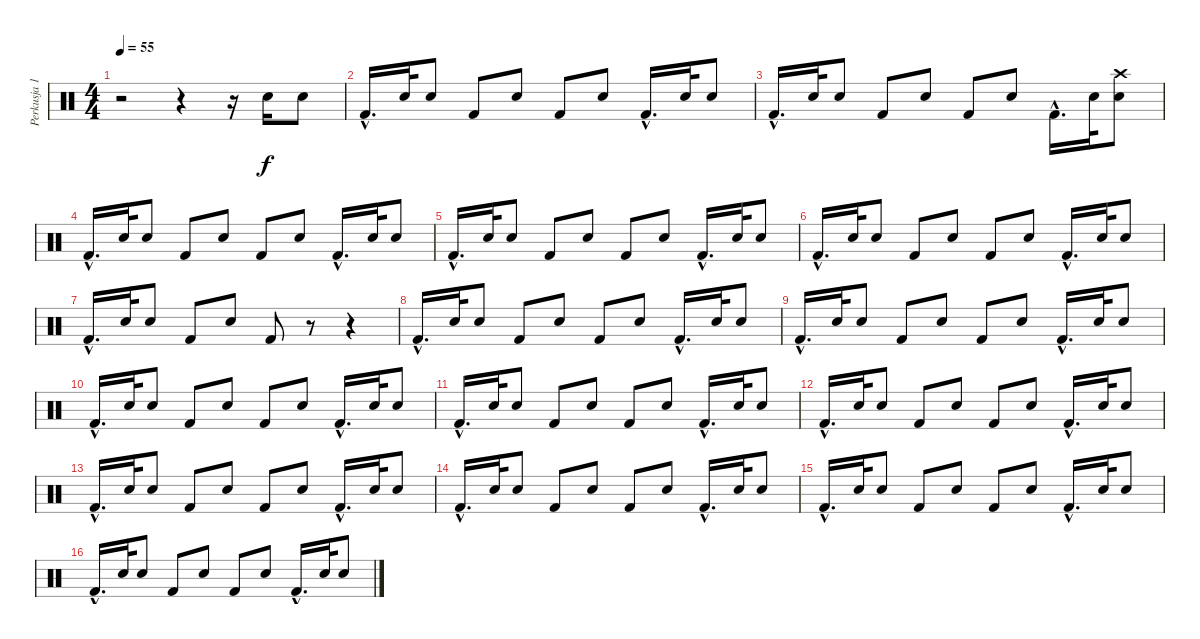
\track ("Perkusja 1" "Perkusja 1") {instrument percussion}
\staff {score}
\articulation defaults
\ts (4 4)
\tempo 55
\clef neutral
\ks c
r.2{dy f} r.4 r.16 "Electric Snare (hit)".16 "Electric Snare (hit)".8 |
"Kick (hit) 2"{hac}.16{d} "Electric Snare (hit)".32 "Electric Snare (hit)".8 "Kick (hit) 2".8 "Electric Snare (hit)".8 "Kick (hit) 2".8 "Electric Snare (hit)".8 "Kick (hit) 2"{hac}.16{d} "Electric Snare (hit)".32 "Electric Snare (hit)".8 |
"Kick (hit) 2"{hac}.16{d} "Electric Snare (hit)".32 "Electric Snare (hit)".8 "Kick (hit) 2".8 "Electric Snare (hit)".8 "Kick (hit) 2".8 "Electric Snare (hit)".8 "Kick (hit) 2"{hac}.16{d} "Electric Snare (hit)".32 ("Electric Snare (hit)" "Crash high (hit)").8 |
"Kick (hit) 2"{hac}.16{d} "Electric Snare (hit)".32 "Electric Snare (hit)".8 "Kick (hit) 2".8 "Electric Snare (hit)".8 "Kick (hit) 2".8 "Electric Snare (hit)".8 "Kick (hit) 2"{hac}.16{d} "Electric Snare (hit)".32 "Electric Snare (hit)".8 |
"Kick (hit) 2"{hac}.16{d} "Electric Snare (hit)".32 "Electric Snare (hit)".8 "Kick (hit) 2".8 "Electric Snare (hit)".8 "Kick (hit) 2".8 "Electric Snare (hit)".8 "Kick (hit) 2"{hac}.16{d} "Electric Snare (hit)".32 "Electric Snare (hit)".8 |
"Kick (hit) 2"{hac}.16{d} "Electric Snare (hit)".32 "Electric Snare (hit)".8 "Kick (hit) 2".8 "Electric Snare (hit)".8 "Kick (hit) 2".8 "Electric Snare (hit)".8 "Kick (hit) 2"{hac}.16{d} "Electric Snare (hit)".32 "Electric Snare (hit)".8 |
"Kick (hit) 2"{hac}.16{d} "Electric Snare (hit)".32 "Electric Snare (hit)".8 "Kick (hit) 2".8 "Electric Snare (hit)".8 "Kick (hit) 2".8 r.8 r.4 |
"Kick (hit) 2"{hac}.16{d} "Electric Snare (hit)".32 "Electric Snare (hit)".8 "Kick (hit) 2".8 "Electric Snare (hit)".8 "Kick (hit) 2".8 "Electric Snare (hit)".8 "Kick (hit) 2"{hac}.16{d} "Electric Snare (hit)".32 "Electric Snare (hit)".8 |
"Kick (hit) 2"{hac}.16{d} "Electric Snare (hit)".32 "Electric Snare (hit)".8 "Kick (hit) 2".8 "Electric Snare (hit)".8 "Kick (hit) 2".8 "Electric Snare (hit)".8 "Kick (hit) 2"{hac}.16{d} "Electric Snare (hit)".32 "Electric Snare (hit)".8 |
"Kick (hit) 2"{hac}.16{d} "Electric Snare (hit)".32 "Electric Snare (hit)".8 "Kick (hit) 2".8 "Electric Snare (hit)".8 "Kick (hit) 2".8 "Electric Snare (hit)".8 "Kick (hit) 2"{hac}.16{d} "Electric Snare (hit)".32 "Electric Snare (hit)".8 |
"Kick (hit) 2"{hac}.16{d} "Electric Snare (hit)".32 "Electric Snare (hit)".8 "Kick (hit) 2".8 "Electric Snare (hit)".8 "Kick (hit) 2".8 "Electric Snare (hit)".8 "Kick (hit) 2"{hac}.16{d} "Electric Snare (hit)".32 "Electric Snare (hit)".8 |
"Kick (hit) 2"{hac}.16{d} "Electric Snare (hit)".32 "Electric Snare (hit)".8 "Kick (hit) 2".8 "Electric Snare (hit)".8 "Kick (hit) 2".8 "Electric Snare (hit)".8 "Kick (hit) 2"{hac}.16{d} "Electric Snare (hit)".32 "Electric Snare (hit)".8 |
"Kick (hit) 2"{hac}.16{d} "Electric Snare (hit)".32 "Electric Snare (hit)".8 "Kick (hit) 2".8 "Electric Snare (hit)".8 "Kick (hit) 2".8 "Electric Snare (hit)".8 "Kick (hit) 2"{hac}.16{d} "Electric Snare (hit)".32 "Electric Snare (hit)".8 |
"Kick (hit) 2"{hac}.16{d} "Electric Snare (hit)".32 "Electric Snare (hit)".8 "Kick (hit) 2".8 "Electric Snare (hit)".8 "Kick (hit) 2".8 "Electric Snare (hit)".8 "Kick (hit) 2"{hac}.16{d} "Electric Snare (hit)".32 "Electric Snare (hit)".8 |
"Kick (hit) 2"{hac}.16{d} "Electric Snare (hit)".32 "Electric Snare (hit)".8 "Kick (hit) 2".8 "Electric Snare (hit)".8 "Kick (hit) 2".8 "Electric Snare (hit)".8 "Kick (hit) 2"{hac}.16{d} "Electric Snare (hit)".32 "Electric Snare (hit)".8 |
"Kick (hit) 2"{hac}.16{d} "Electric Snare (hit)".32 "Electric Snare (hit)".8 "Kick (hit) 2".8 "Electric Snare (hit)".8 "Kick (hit) 2".8 "Electric Snare (hit)".8 "Kick (hit) 2"{hac}.16{d} "Electric Snare (hit)".32 "Electric Snare (hit)".8
